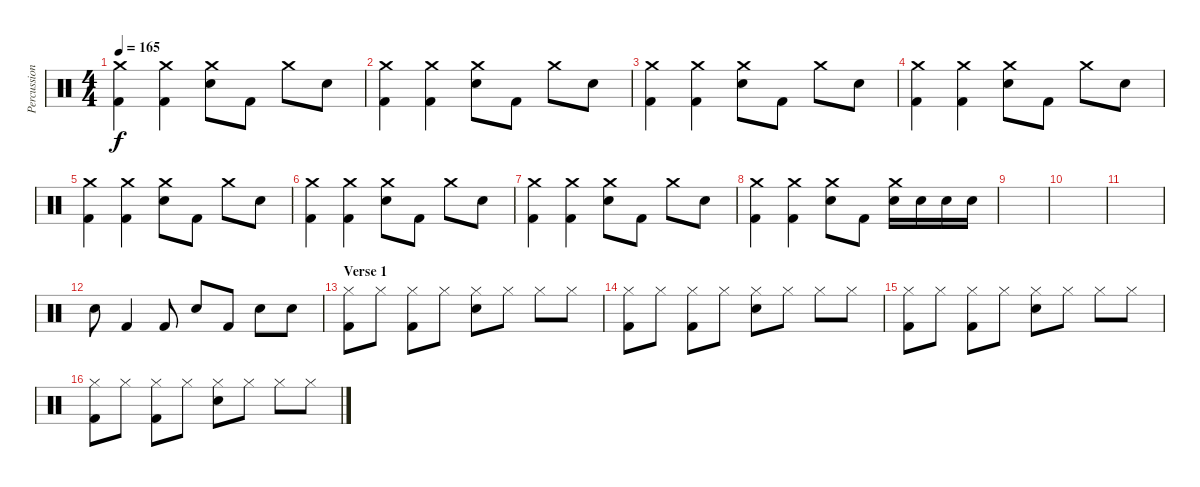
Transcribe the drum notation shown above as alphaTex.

\track ("Percussion" "Percussion") {instrument percussion}
\staff {score}
\articulation defaults
\ts (4 4)
\tempo 165
\clef neutral
\ks c
("Crash medium (hit)" "Kick (hit) 2").4{dy f} ("Crash medium (hit)" "Kick (hit) 2").4 ("Crash medium (hit)" "Snare (hit) 2").8 "Kick (hit) 2".8 "Crash medium (hit)".8 "Snare (hit) 2".8 |
("Crash medium (hit)" "Kick (hit) 2").4 ("Crash medium (hit)" "Kick (hit) 2").4 ("Crash medium (hit)" "Snare (hit) 2").8 "Kick (hit) 2".8 "Crash medium (hit)".8 "Snare (hit) 2".8 |
("Crash medium (hit)" "Kick (hit) 2").4 ("Crash medium (hit)" "Kick (hit) 2").4 ("Crash medium (hit)" "Snare (hit) 2").8 "Kick (hit) 2".8 "Crash medium (hit)".8 "Snare (hit) 2".8 |
("Crash medium (hit)" "Kick (hit) 2").4 ("Crash medium (hit)" "Kick (hit) 2").4 ("Crash medium (hit)" "Snare (hit) 2").8 "Kick (hit) 2".8 "Crash medium (hit)".8 "Snare (hit) 2".8 |
("Crash medium (hit)" "Kick (hit) 2").4 ("Crash medium (hit)" "Kick (hit) 2").4 ("Crash medium (hit)" "Snare (hit) 2").8 "Kick (hit) 2".8 "Crash medium (hit)".8 "Snare (hit) 2".8 |
("Crash medium (hit)" "Kick (hit) 2").4 ("Crash medium (hit)" "Kick (hit) 2").4 ("Crash medium (hit)" "Snare (hit) 2").8 "Kick (hit) 2".8 "Crash medium (hit)".8 "Snare (hit) 2".8 |
("Crash medium (hit)" "Kick (hit) 2").4 ("Crash medium (hit)" "Kick (hit) 2").4 ("Crash medium (hit)" "Snare (hit) 2").8 "Kick (hit) 2".8 "Crash medium (hit)".8 "Snare (hit) 2".8 |
("Crash medium (hit)" "Kick (hit) 2").4 ("Crash medium (hit)" "Kick (hit) 2").4 ("Crash medium (hit)" "Snare (hit) 2").8 "Kick (hit) 2".8 ("Crash medium (hit)" "Snare (hit) 2").16 "Snare (hit) 2".16 "Snare (hit) 2".16 "Snare (hit) 2".16 |
|
|
|
"Snare (hit) 2".8 "Kick (hit) 2".4 "Kick (hit) 2".8 "Snare (hit) 2".8 "Kick (hit) 2".8 "Snare (hit) 2".8 "Snare (hit) 2".8 |
\section ("" "Verse 1")
("Hi-Hat (closed)" "Kick (hit) 2").8 "Hi-Hat (closed)".8 ("Hi-Hat (closed)" "Kick (hit) 2").8 "Hi-Hat (closed)".8 ("Hi-Hat (closed)" "Snare (hit) 2").8 "Hi-Hat (closed)".8 "Hi-Hat (closed)".8 "Hi-Hat (closed)".8 |
("Hi-Hat (closed)" "Kick (hit) 2").8 "Hi-Hat (closed)".8 ("Hi-Hat (closed)" "Kick (hit) 2").8 "Hi-Hat (closed)".8 ("Hi-Hat (closed)" "Snare (hit) 2").8 "Hi-Hat (closed)".8 "Hi-Hat (closed)".8 "Hi-Hat (closed)".8 |
("Hi-Hat (closed)" "Kick (hit) 2").8 "Hi-Hat (closed)".8 ("Hi-Hat (closed)" "Kick (hit) 2").8 "Hi-Hat (closed)".8 ("Hi-Hat (closed)" "Snare (hit) 2").8 "Hi-Hat (closed)".8 "Hi-Hat (closed)".8 "Hi-Hat (closed)".8 |
("Hi-Hat (closed)" "Kick (hit) 2").8 "Hi-Hat (closed)".8 ("Hi-Hat (closed)" "Kick (hit) 2").8 "Hi-Hat (closed)".8 ("Hi-Hat (closed)" "Snare (hit) 2").8 "Hi-Hat (closed)".8 "Hi-Hat (closed)".8 "Hi-Hat (closed)".8
